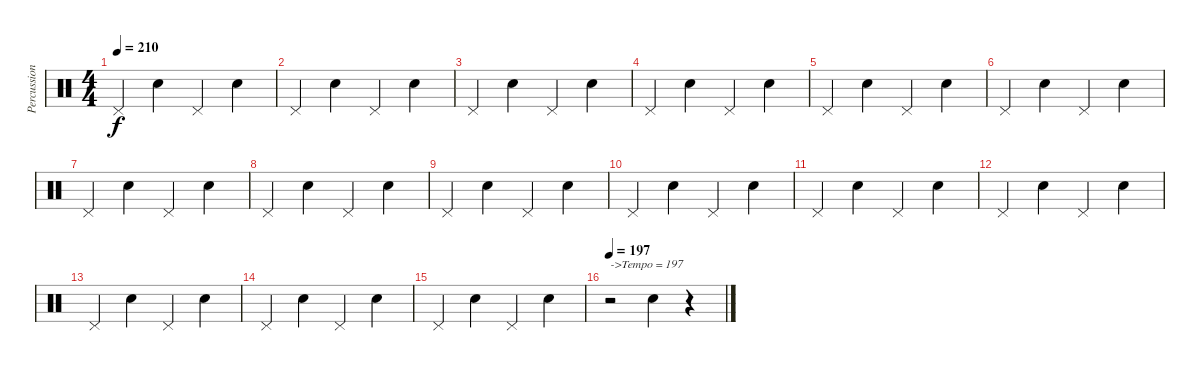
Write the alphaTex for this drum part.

\track ("Percussion" "Percussion") {instrument percussion}
\staff {score}
\articulation defaults
\ts (4 4)
\tempo 210
\clef neutral
\ks c "Pedal Hi-Hat (hit)".4{dy f} "Electric Snare (hit)".4 "Pedal Hi-Hat (hit)".4 "Electric Snare (hit)".4
|
"Pedal Hi-Hat (hit)".4 "Electric Snare (hit)".4 "Pedal Hi-Hat (hit)".4 "Electric Snare (hit)".4 |
"Pedal Hi-Hat (hit)".4 "Electric Snare (hit)".4 "Pedal Hi-Hat (hit)".4 "Electric Snare (hit)".4 |
"Pedal Hi-Hat (hit)".4 "Electric Snare (hit)".4 "Pedal Hi-Hat (hit)".4 "Electric Snare (hit)".4 |
"Pedal Hi-Hat (hit)".4 "Electric Snare (hit)".4 "Pedal Hi-Hat (hit)".4 "Electric Snare (hit)".4 |
"Pedal Hi-Hat (hit)".4 "Electric Snare (hit)".4 "Pedal Hi-Hat (hit)".4 "Electric Snare (hit)".4 |
"Pedal Hi-Hat (hit)".4 "Electric Snare (hit)".4 "Pedal Hi-Hat (hit)".4 "Electric Snare (hit)".4 |
"Pedal Hi-Hat (hit)".4 "Electric Snare (hit)".4 "Pedal Hi-Hat (hit)".4 "Electric Snare (hit)".4 |
"Pedal Hi-Hat (hit)".4 "Electric Snare (hit)".4 "Pedal Hi-Hat (hit)".4 "Electric Snare (hit)".4 |
"Pedal Hi-Hat (hit)".4 "Electric Snare (hit)".4 "Pedal Hi-Hat (hit)".4 "Electric Snare (hit)".4 |
"Pedal Hi-Hat (hit)".4 "Electric Snare (hit)".4 "Pedal Hi-Hat (hit)".4 "Electric Snare (hit)".4 |
"Pedal Hi-Hat (hit)".4 "Electric Snare (hit)".4 "Pedal Hi-Hat (hit)".4 "Electric Snare (hit)".4 |
"Pedal Hi-Hat (hit)".4 "Electric Snare (hit)".4 "Pedal Hi-Hat (hit)".4 "Electric Snare (hit)".4 |
"Pedal Hi-Hat (hit)".4 "Electric Snare (hit)".4 "Pedal Hi-Hat (hit)".4 "Electric Snare (hit)".4 |
"Pedal Hi-Hat (hit)".4 "Electric Snare (hit)".4 "Pedal Hi-Hat (hit)".4 "Electric Snare (hit)".4 |
\tempo 197
r.2{txt "->Tempo = 197"} "Electric Snare (hit)".4 r.4
